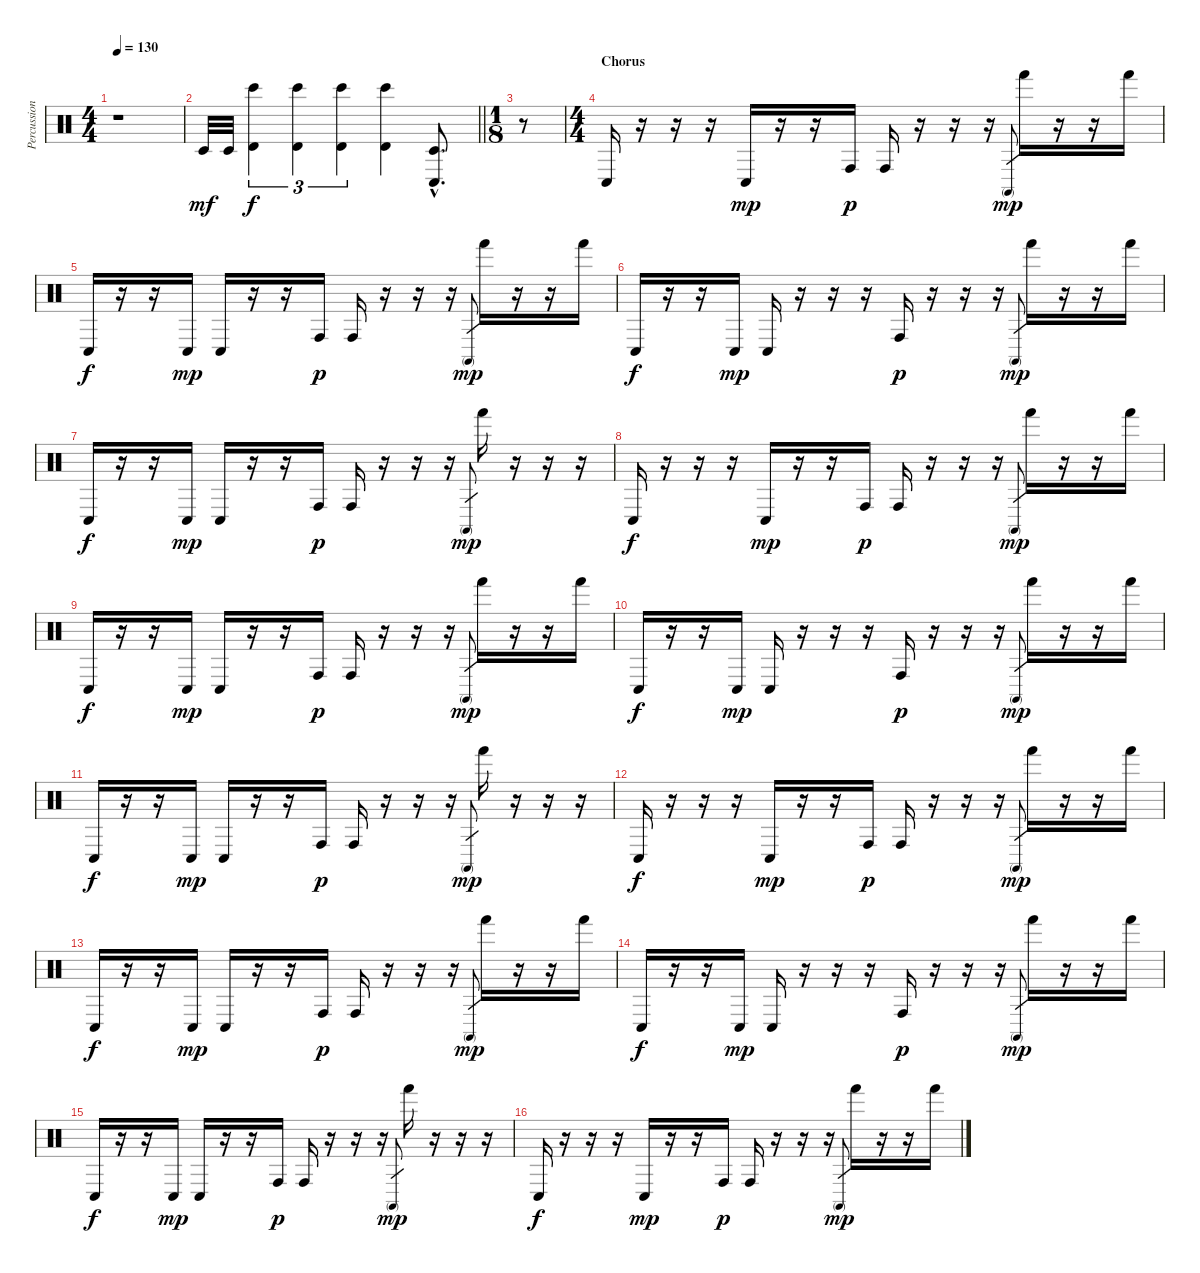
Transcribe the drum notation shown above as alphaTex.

\track ("Percussions" "Percussion") {instrument percussion}
\staff {score}
\articulation defaults
\ts (4 4)
\tempo 130
\clef neutral
\ks c
r.1{dy mp} |
\barLineRight lightlight "Timbale low (hit)".32{dy mf} "Timbale low (hit)".32
("Bongo High (hit)" "Timbale high (hit)").4{tu (3 2) dy f} ("Bongo High (hit)" "Timbale high (hit)").4{tu (3 2)} ("Bongo High (hit)" "Timbale high (hit)").4{tu (3 2)} ("Bongo High (hit)" "Timbale high (hit)").4 ("Conga low (hit)"{hac} "Timbale low (hit)"{hac}).8{d} |
\ts (1 8)
r.8 |
\ts (4 4)
\section ("" "Chorus")
"Conga low (hit)".16 r.16 r.16 r.16 "Conga low (hit)".16{dy mp} r.16 r.16 "Conga high (hit)".16{dy p} "Conga high (hit)".16 r.16 r.16 r.16 "Conga high (mute)".8{gr dy mp} "Hand (hit)".16 r.16 r.16 "Hand (hit)".16 |
"Conga low (hit)".16{dy f} r.16 r.16 "Conga low (hit)".16{dy mp} "Conga low (hit)".16 r.16 r.16 "Conga high (hit)".16{dy p} "Conga high (hit)".16 r.16 r.16 r.16 "Conga high (mute)".8{gr dy mp} "Hand (hit)".16 r.16 r.16 "Hand (hit)".16 |
"Conga low (hit)".16{dy f} r.16 r.16 "Conga low (hit)".16{dy mp} "Conga low (hit)".16 r.16 r.16 r.16 "Conga high (hit)".16{dy p} r.16 r.16 r.16 "Conga high (mute)".8{gr dy mp} "Hand (hit)".16 r.16 r.16 "Hand (hit)".16 |
"Conga low (hit)".16{dy f} r.16 r.16 "Conga low (hit)".16{dy mp} "Conga low (hit)".16 r.16 r.16 "Conga high (hit)".16{dy p} "Conga high (hit)".16 r.16 r.16 r.16 "Conga high (mute)".8{gr dy mp} "Hand (hit)".16 r.16 r.16 r.16 |
"Conga low (hit)".16{dy f} r.16 r.16 r.16 "Conga low (hit)".16{dy mp} r.16 r.16 "Conga high (hit)".16{dy p} "Conga high (hit)".16 r.16 r.16 r.16 "Conga high (mute)".8{gr dy mp} "Hand (hit)".16 r.16 r.16 "Hand (hit)".16 |
"Conga low (hit)".16{dy f} r.16 r.16 "Conga low (hit)".16{dy mp} "Conga low (hit)".16 r.16 r.16 "Conga high (hit)".16{dy p} "Conga high (hit)".16 r.16 r.16 r.16 "Conga high (mute)".8{gr dy mp} "Hand (hit)".16 r.16 r.16 "Hand (hit)".16 |
"Conga low (hit)".16{dy f} r.16 r.16 "Conga low (hit)".16{dy mp} "Conga low (hit)".16 r.16 r.16 r.16 "Conga high (hit)".16{dy p} r.16 r.16 r.16 "Conga high (mute)".8{gr dy mp} "Hand (hit)".16 r.16 r.16 "Hand (hit)".16 |
"Conga low (hit)".16{dy f} r.16 r.16 "Conga low (hit)".16{dy mp} "Conga low (hit)".16 r.16 r.16 "Conga high (hit)".16{dy p} "Conga high (hit)".16 r.16 r.16 r.16 "Conga high (mute)".8{gr dy mp} "Hand (hit)".16 r.16 r.16 r.16 |
"Conga low (hit)".16{dy f} r.16 r.16 r.16 "Conga low (hit)".16{dy mp} r.16 r.16 "Conga high (hit)".16{dy p} "Conga high (hit)".16 r.16 r.16 r.16 "Conga high (mute)".8{gr dy mp} "Hand (hit)".16 r.16 r.16 "Hand (hit)".16 |
"Conga low (hit)".16{dy f} r.16 r.16 "Conga low (hit)".16{dy mp} "Conga low (hit)".16 r.16 r.16 "Conga high (hit)".16{dy p} "Conga high (hit)".16 r.16 r.16 r.16 "Conga high (mute)".8{gr dy mp} "Hand (hit)".16 r.16 r.16 "Hand (hit)".16 |
"Conga low (hit)".16{dy f} r.16 r.16 "Conga low (hit)".16{dy mp} "Conga low (hit)".16 r.16 r.16 r.16 "Conga high (hit)".16{dy p} r.16 r.16 r.16 "Conga high (mute)".8{gr dy mp} "Hand (hit)".16 r.16 r.16 "Hand (hit)".16 |
"Conga low (hit)".16{dy f} r.16 r.16 "Conga low (hit)".16{dy mp} "Conga low (hit)".16 r.16 r.16 "Conga high (hit)".16{dy p} "Conga high (hit)".16 r.16 r.16 r.16 "Conga high (mute)".8{gr dy mp} "Hand (hit)".16 r.16 r.16 r.16 |
"Conga low (hit)".16{dy f} r.16 r.16 r.16 "Conga low (hit)".16{dy mp} r.16 r.16 "Conga high (hit)".16{dy p} "Conga high (hit)".16 r.16 r.16 r.16 "Conga high (mute)".8{gr dy mp} "Hand (hit)".16 r.16 r.16 "Hand (hit)".16
